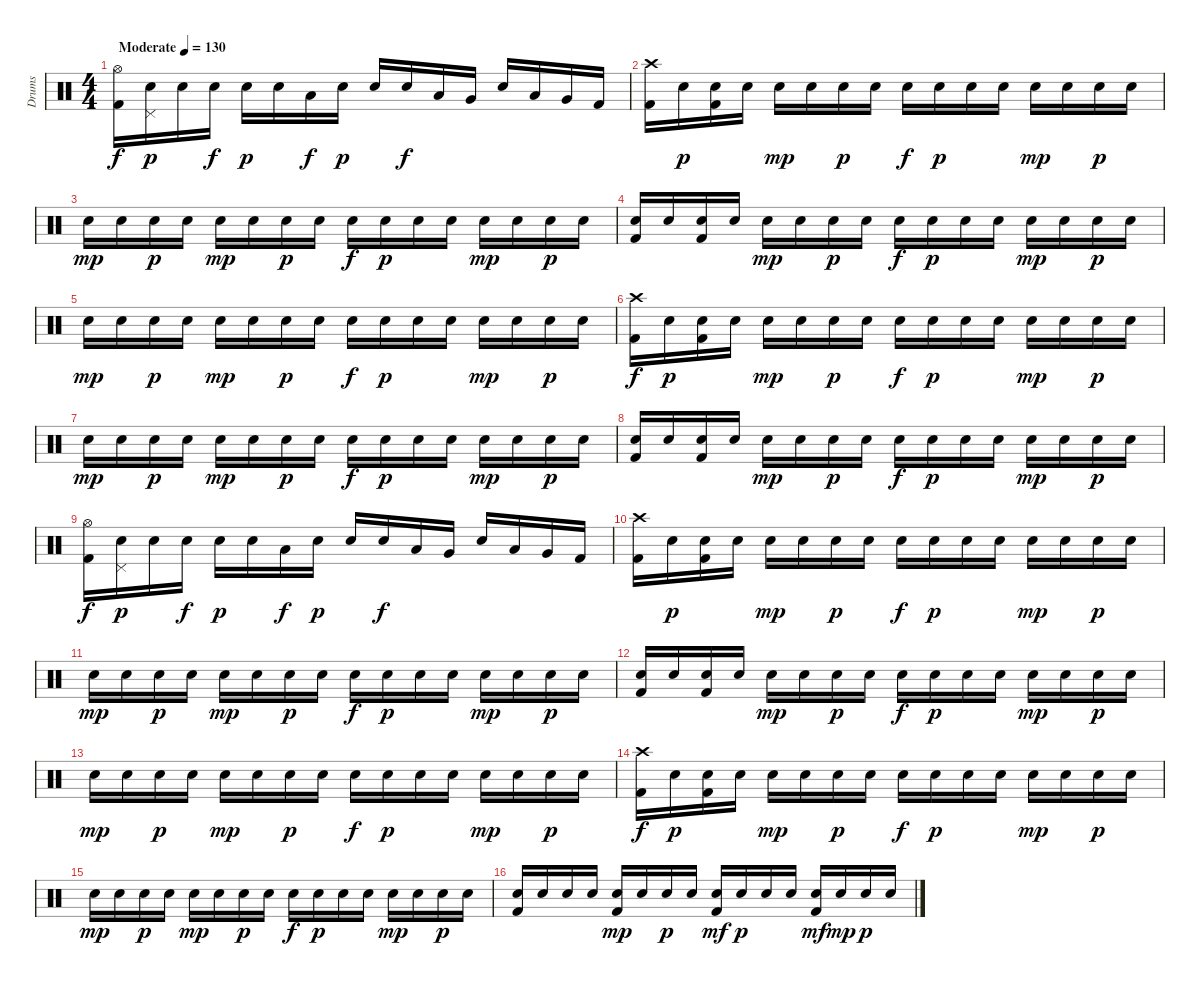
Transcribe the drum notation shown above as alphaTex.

\track ("Drums" "Drums") {instrument percussion}
\staff {score}
\articulation defaults
\ts (4 4)
\tempo (130 "Moderate")
\clef neutral
\ks c
("Hi-Hat (open)" "Kick (hit) 2").16{dy f} ("Pedal Hi-Hat (hit)" "Electric Snare (hit)").16{dy p} "Electric Snare (hit)".16 "Electric Snare (hit)".16{dy f} "Electric Snare (hit)".16{dy p} "Electric Snare (hit)".16 "Low Tom (hit)".16{dy f} "Electric Snare (hit)".16{dy p} "Electric Snare (hit)".16 "Electric Snare (hit)".16{dy f} "Low Tom (hit)".16 "Very Low Tom (hit)".16 "Electric Snare (hit)".16 "Low Tom (hit)".16 "Very Low Tom (hit)".16 "Kick (hit) 2".16 |
("Crash high (hit)" "Kick (hit) 2").16 "Electric Snare (hit)".16{dy p} ("Electric Snare (hit)" "Kick (hit) 2").16 "Electric Snare (hit)".16 "Electric Snare (hit)".16{dy mp} "Electric Snare (hit)".16 "Electric Snare (hit)".16{dy p} "Electric Snare (hit)".16 "Electric Snare (hit)".16{dy f} "Electric Snare (hit)".16{dy p} "Electric Snare (hit)".16 "Electric Snare (hit)".16 "Electric Snare (hit)".16{dy mp} "Electric Snare (hit)".16 "Electric Snare (hit)".16{dy p} "Electric Snare (hit)".16 |
"Electric Snare (hit)".16{dy mp} "Electric Snare (hit)".16 "Electric Snare (hit)".16{dy p} "Electric Snare (hit)".16 "Electric Snare (hit)".16{dy mp} "Electric Snare (hit)".16 "Electric Snare (hit)".16{dy p} "Electric Snare (hit)".16 "Electric Snare (hit)".16{dy f} "Electric Snare (hit)".16{dy p} "Electric Snare (hit)".16 "Electric Snare (hit)".16 "Electric Snare (hit)".16{dy mp} "Electric Snare (hit)".16 "Electric Snare (hit)".16{dy p} "Electric Snare (hit)".16 |
("Electric Snare (hit)" "Kick (hit) 2").16 "Electric Snare (hit)".16 ("Electric Snare (hit)" "Kick (hit) 2").16 "Electric Snare (hit)".16 "Electric Snare (hit)".16{dy mp} "Electric Snare (hit)".16 "Electric Snare (hit)".16{dy p} "Electric Snare (hit)".16 "Electric Snare (hit)".16{dy f} "Electric Snare (hit)".16{dy p} "Electric Snare (hit)".16 "Electric Snare (hit)".16 "Electric Snare (hit)".16{dy mp} "Electric Snare (hit)".16 "Electric Snare (hit)".16{dy p} "Electric Snare (hit)".16 |
"Electric Snare (hit)".16{dy mp} "Electric Snare (hit)".16 "Electric Snare (hit)".16{dy p} "Electric Snare (hit)".16 "Electric Snare (hit)".16{dy mp} "Electric Snare (hit)".16 "Electric Snare (hit)".16{dy p} "Electric Snare (hit)".16 "Electric Snare (hit)".16{dy f} "Electric Snare (hit)".16{dy p} "Electric Snare (hit)".16 "Electric Snare (hit)".16 "Electric Snare (hit)".16{dy mp} "Electric Snare (hit)".16 "Electric Snare (hit)".16{dy p} "Electric Snare (hit)".16 |
("Crash high (hit)" "Kick (hit) 2").16{dy f} "Electric Snare (hit)".16{dy p} ("Electric Snare (hit)" "Kick (hit) 2").16 "Electric Snare (hit)".16 "Electric Snare (hit)".16{dy mp} "Electric Snare (hit)".16 "Electric Snare (hit)".16{dy p} "Electric Snare (hit)".16 "Electric Snare (hit)".16{dy f} "Electric Snare (hit)".16{dy p} "Electric Snare (hit)".16 "Electric Snare (hit)".16 "Electric Snare (hit)".16{dy mp} "Electric Snare (hit)".16 "Electric Snare (hit)".16{dy p} "Electric Snare (hit)".16 |
"Electric Snare (hit)".16{dy mp} "Electric Snare (hit)".16 "Electric Snare (hit)".16{dy p} "Electric Snare (hit)".16 "Electric Snare (hit)".16{dy mp} "Electric Snare (hit)".16 "Electric Snare (hit)".16{dy p} "Electric Snare (hit)".16 "Electric Snare (hit)".16{dy f} "Electric Snare (hit)".16{dy p} "Electric Snare (hit)".16 "Electric Snare (hit)".16 "Electric Snare (hit)".16{dy mp} "Electric Snare (hit)".16 "Electric Snare (hit)".16{dy p} "Electric Snare (hit)".16 |
("Electric Snare (hit)" "Kick (hit) 2").16 "Electric Snare (hit)".16 ("Electric Snare (hit)" "Kick (hit) 2").16 "Electric Snare (hit)".16 "Electric Snare (hit)".16{dy mp} "Electric Snare (hit)".16 "Electric Snare (hit)".16{dy p} "Electric Snare (hit)".16 "Electric Snare (hit)".16{dy f} "Electric Snare (hit)".16{dy p} "Electric Snare (hit)".16 "Electric Snare (hit)".16 "Electric Snare (hit)".16{dy mp} "Electric Snare (hit)".16 "Electric Snare (hit)".16{dy p} "Electric Snare (hit)".16 |
("Hi-Hat (open)" "Kick (hit) 2").16{dy f} ("Pedal Hi-Hat (hit)" "Electric Snare (hit)").16{dy p} "Electric Snare (hit)".16 "Electric Snare (hit)".16{dy f} "Electric Snare (hit)".16{dy p} "Electric Snare (hit)".16 "Low Tom (hit)".16{dy f} "Electric Snare (hit)".16{dy p} "Electric Snare (hit)".16 "Electric Snare (hit)".16{dy f} "Low Tom (hit)".16 "Very Low Tom (hit)".16 "Electric Snare (hit)".16 "Low Tom (hit)".16 "Very Low Tom (hit)".16 "Kick (hit) 2".16 |
("Crash high (hit)" "Kick (hit) 2").16 "Electric Snare (hit)".16{dy p} ("Electric Snare (hit)" "Kick (hit) 2").16 "Electric Snare (hit)".16 "Electric Snare (hit)".16{dy mp} "Electric Snare (hit)".16 "Electric Snare (hit)".16{dy p} "Electric Snare (hit)".16 "Electric Snare (hit)".16{dy f} "Electric Snare (hit)".16{dy p} "Electric Snare (hit)".16 "Electric Snare (hit)".16 "Electric Snare (hit)".16{dy mp} "Electric Snare (hit)".16 "Electric Snare (hit)".16{dy p} "Electric Snare (hit)".16 |
"Electric Snare (hit)".16{dy mp} "Electric Snare (hit)".16 "Electric Snare (hit)".16{dy p} "Electric Snare (hit)".16 "Electric Snare (hit)".16{dy mp} "Electric Snare (hit)".16 "Electric Snare (hit)".16{dy p} "Electric Snare (hit)".16 "Electric Snare (hit)".16{dy f} "Electric Snare (hit)".16{dy p} "Electric Snare (hit)".16 "Electric Snare (hit)".16 "Electric Snare (hit)".16{dy mp} "Electric Snare (hit)".16 "Electric Snare (hit)".16{dy p} "Electric Snare (hit)".16 |
("Electric Snare (hit)" "Kick (hit) 2").16 "Electric Snare (hit)".16 ("Electric Snare (hit)" "Kick (hit) 2").16 "Electric Snare (hit)".16 "Electric Snare (hit)".16{dy mp} "Electric Snare (hit)".16 "Electric Snare (hit)".16{dy p} "Electric Snare (hit)".16 "Electric Snare (hit)".16{dy f} "Electric Snare (hit)".16{dy p} "Electric Snare (hit)".16 "Electric Snare (hit)".16 "Electric Snare (hit)".16{dy mp} "Electric Snare (hit)".16 "Electric Snare (hit)".16{dy p} "Electric Snare (hit)".16 |
"Electric Snare (hit)".16{dy mp} "Electric Snare (hit)".16 "Electric Snare (hit)".16{dy p} "Electric Snare (hit)".16 "Electric Snare (hit)".16{dy mp} "Electric Snare (hit)".16 "Electric Snare (hit)".16{dy p} "Electric Snare (hit)".16 "Electric Snare (hit)".16{dy f} "Electric Snare (hit)".16{dy p} "Electric Snare (hit)".16 "Electric Snare (hit)".16 "Electric Snare (hit)".16{dy mp} "Electric Snare (hit)".16 "Electric Snare (hit)".16{dy p} "Electric Snare (hit)".16 |
("Crash high (hit)" "Kick (hit) 2").16{dy f} "Electric Snare (hit)".16{dy p} ("Electric Snare (hit)" "Kick (hit) 2").16 "Electric Snare (hit)".16 "Electric Snare (hit)".16{dy mp} "Electric Snare (hit)".16 "Electric Snare (hit)".16{dy p} "Electric Snare (hit)".16 "Electric Snare (hit)".16{dy f} "Electric Snare (hit)".16{dy p} "Electric Snare (hit)".16 "Electric Snare (hit)".16 "Electric Snare (hit)".16{dy mp} "Electric Snare (hit)".16 "Electric Snare (hit)".16{dy p} "Electric Snare (hit)".16 |
"Electric Snare (hit)".16{dy mp} "Electric Snare (hit)".16 "Electric Snare (hit)".16{dy p} "Electric Snare (hit)".16 "Electric Snare (hit)".16{dy mp} "Electric Snare (hit)".16 "Electric Snare (hit)".16{dy p} "Electric Snare (hit)".16 "Electric Snare (hit)".16{dy f} "Electric Snare (hit)".16{dy p} "Electric Snare (hit)".16 "Electric Snare (hit)".16 "Electric Snare (hit)".16{dy mp} "Electric Snare (hit)".16 "Electric Snare (hit)".16{dy p} "Electric Snare (hit)".16 |
("Electric Snare (hit)" "Kick (hit) 2").16 "Electric Snare (hit)".16 "Electric Snare (hit)".16 "Electric Snare (hit)".16 ("Electric Snare (hit)" "Kick (hit) 2").16{dy mp} "Electric Snare (hit)".16 "Electric Snare (hit)".16{dy p} "Electric Snare (hit)".16 ("Electric Snare (hit)" "Kick (hit) 2").16{dy mf} "Electric Snare (hit)".16{dy p} "Electric Snare (hit)".16 "Electric Snare (hit)".16 ("Electric Snare (hit)" "Kick (hit) 2").16{dy mf} "Electric Snare (hit)".16{dy mp} "Electric Snare (hit)".16{dy p} "Electric Snare (hit)".16
